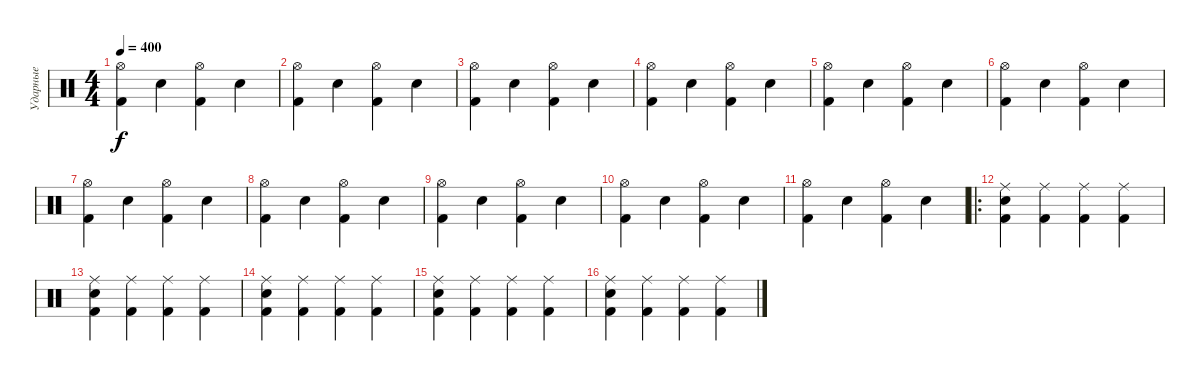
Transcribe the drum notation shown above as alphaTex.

\track ("Ударные" "Ударные") {instrument percussion}
\staff {score}
\articulation defaults
\ts (4 4)
\tempo 400
\clef neutral
\ks c
("Kick (hit) 2" "Hi-Hat (open)").4{dy f} "Electric Snare (hit)".4 ("Kick (hit) 2" "Hi-Hat (open)").4 "Electric Snare (hit)".4 |
("Kick (hit) 2" "Hi-Hat (open)").4 "Electric Snare (hit)".4 ("Kick (hit) 2" "Hi-Hat (open)").4 "Electric Snare (hit)".4 |
("Kick (hit) 2" "Hi-Hat (open)").4 "Electric Snare (hit)".4 ("Kick (hit) 2" "Hi-Hat (open)").4 "Electric Snare (hit)".4 |
("Kick (hit) 2" "Hi-Hat (open)").4 "Electric Snare (hit)".4 ("Kick (hit) 2" "Hi-Hat (open)").4 "Electric Snare (hit)".4 |
("Kick (hit) 2" "Hi-Hat (open)").4 "Electric Snare (hit)".4 ("Kick (hit) 2" "Hi-Hat (open)").4 "Electric Snare (hit)".4 |
("Kick (hit) 2" "Hi-Hat (open)").4 "Electric Snare (hit)".4 ("Kick (hit) 2" "Hi-Hat (open)").4 "Electric Snare (hit)".4 |
("Kick (hit) 2" "Hi-Hat (open)").4 "Electric Snare (hit)".4 ("Kick (hit) 2" "Hi-Hat (open)").4 "Electric Snare (hit)".4 |
("Kick (hit) 2" "Hi-Hat (open)").4 "Electric Snare (hit)".4 ("Kick (hit) 2" "Hi-Hat (open)").4 "Electric Snare (hit)".4 |
("Kick (hit) 2" "Hi-Hat (open)").4 "Electric Snare (hit)".4 ("Kick (hit) 2" "Hi-Hat (open)").4 "Electric Snare (hit)".4 |
("Kick (hit) 2" "Hi-Hat (open)").4 "Electric Snare (hit)".4 ("Kick (hit) 2" "Hi-Hat (open)").4 "Electric Snare (hit)".4 |
("Kick (hit) 2" "Hi-Hat (open)").4 "Electric Snare (hit)".4 ("Kick (hit) 2" "Hi-Hat (open)").4 "Electric Snare (hit)".4 |
\ro
("Kick (hit) 2" "Electric Snare (hit)" "Ride (middle)").4 ("Kick (hit) 2" "Ride (middle)").4 ("Kick (hit) 2" "Ride (middle)").4 ("Kick (hit) 2" "Ride (middle)").4 |
("Kick (hit) 2" "Electric Snare (hit)" "Ride (middle)").4 ("Kick (hit) 2" "Ride (middle)").4 ("Kick (hit) 2" "Ride (middle)").4 ("Kick (hit) 2" "Ride (middle)").4 |
("Kick (hit) 2" "Electric Snare (hit)" "Ride (middle)").4 ("Kick (hit) 2" "Ride (middle)").4 ("Kick (hit) 2" "Ride (middle)").4 ("Kick (hit) 2" "Ride (middle)").4 |
("Kick (hit) 2" "Electric Snare (hit)" "Ride (middle)").4 ("Kick (hit) 2" "Ride (middle)").4 ("Kick (hit) 2" "Ride (middle)").4 ("Kick (hit) 2" "Ride (middle)").4 |
("Kick (hit) 2" "Electric Snare (hit)" "Ride (middle)").4 ("Kick (hit) 2" "Ride (middle)").4 ("Kick (hit) 2" "Ride (middle)").4 ("Kick (hit) 2" "Ride (middle)").4
